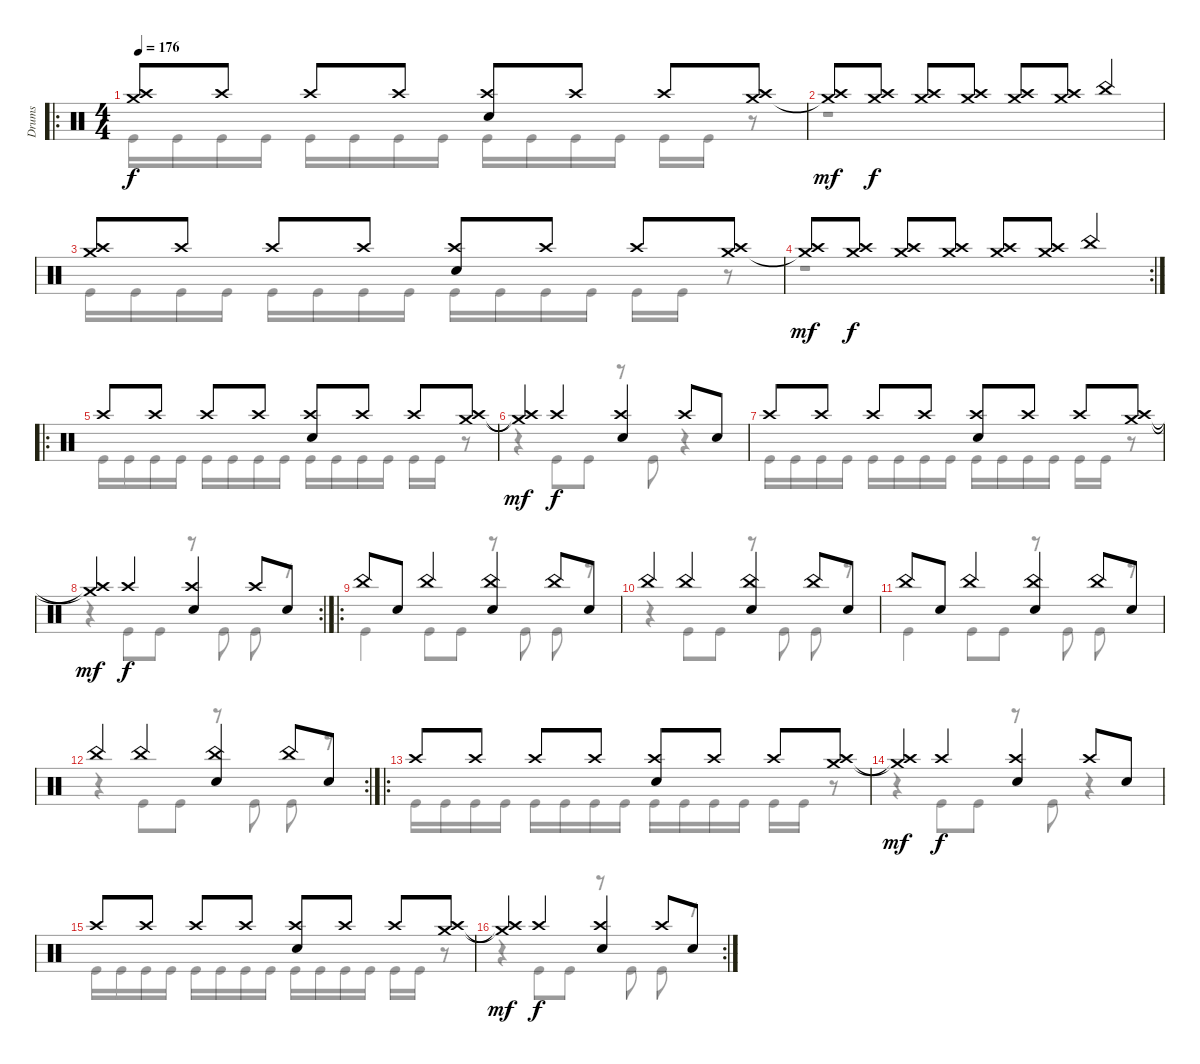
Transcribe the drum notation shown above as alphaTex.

\track ("Drums" "Drums") {instrument percussion}
\staff {score}
\articulation defaults
\voice
\ro
\ts (4 4)
\tempo 176
\clef neutral
\ks c
("Crash medium (hit)" "Crash high (hit)").8{dy f} "Crash high (hit)".8 "Crash high (hit)".8 "Crash high (hit)".8 ("Snare (hit) 2" "Crash high (hit)").8 "Crash high (hit)".8 "Crash high (hit)".8 ("Crash high (hit)" "Crash medium (hit)").8 |
("Crash high (hit)" "Crash medium (hit)"{t}).8{dy mf} ("Crash high (hit)" "Crash medium (hit)").8{dy f} ("Crash high (hit)" "Crash medium (hit)").8 ("Crash high (hit)" "Crash medium (hit)").8 ("Crash high (hit)" "Crash medium (hit)").8 ("Crash high (hit)" "Crash medium (hit)").8 "China (hit)".4 |
("Crash medium (hit)" "Crash high (hit)").8 "Crash high (hit)".8 "Crash high (hit)".8 "Crash high (hit)".8 ("Snare (hit) 2" "Crash high (hit)").8 "Crash high (hit)".8 "Crash high (hit)".8 ("Crash high (hit)" "Crash medium (hit)").8 |
\rc 2
("Crash high (hit)" "Crash medium (hit)"{t}).8{dy mf} ("Crash high (hit)" "Crash medium (hit)").8{dy f} ("Crash high (hit)" "Crash medium (hit)").8 ("Crash high (hit)" "Crash medium (hit)").8 ("Crash high (hit)" "Crash medium (hit)").8 ("Crash high (hit)" "Crash medium (hit)").8 "China (hit)".4 |
\ro "Crash high (hit)".8 "Crash high (hit)".8 "Crash high (hit)".8 "Crash high (hit)".8
("Snare (hit) 2" "Crash high (hit)").8 "Crash high (hit)".8 "Crash high (hit)".8 ("Crash high (hit)" "Crash medium (hit)").8 |
("Crash medium (hit)"{t} "Crash high (hit)"{t}).4{dy mf} "Crash high (hit)".4{dy f} ("Snare (hit) 2" "Crash high (hit)").4 "Crash high (hit)".8 "Snare (hit) 2".8 |
"Crash high (hit)".8 "Crash high (hit)".8 "Crash high (hit)".8 "Crash high (hit)".8 ("Snare (hit) 2" "Crash high (hit)").8 "Crash high (hit)".8 "Crash high (hit)".8 ("Crash high (hit)" "Crash medium (hit)").8 |
\rc 2
("Crash medium (hit)"{t} "Crash high (hit)"{t}).4{dy mf} "Crash high (hit)".4{dy f} ("Snare (hit) 2" "Crash high (hit)").4 "Crash high (hit)".8 "Snare (hit) 2".8 |
\ro "China (hit)".8 "Snare (hit) 2".8 "China (hit)".4
("Snare (hit) 2" "China (hit)").4 "China (hit)".8 "Snare (hit) 2".8 |
"China (hit)".4 "China (hit)".4 ("China (hit)" "Snare (hit) 2").4 "China (hit)".8 "Snare (hit) 2".8 |
"China (hit)".8 "Snare (hit) 2".8 "China (hit)".4 ("Snare (hit) 2" "China (hit)").4 "China (hit)".8 "Snare (hit) 2".8 |
\rc 2 "China (hit)".4 "China (hit)".4
("China (hit)" "Snare (hit) 2").4 "China (hit)".8 "Snare (hit) 2".8 |
\ro "Crash high (hit)".8 "Crash high (hit)".8 "Crash high (hit)".8 "Crash high (hit)".8
("Snare (hit) 2" "Crash high (hit)").8 "Crash high (hit)".8 "Crash high (hit)".8 ("Crash high (hit)" "Crash medium (hit)").8 |
("Crash medium (hit)"{t} "Crash high (hit)"{t}).4{dy mf} "Crash high (hit)".4{dy f} ("Snare (hit) 2" "Crash high (hit)").4 "Crash high (hit)".8 "Snare (hit) 2".8 |
"Crash high (hit)".8 "Crash high (hit)".8 "Crash high (hit)".8 "Crash high (hit)".8 ("Snare (hit) 2" "Crash high (hit)").8 "Crash high (hit)".8 "Crash high (hit)".8 ("Crash high (hit)" "Crash medium (hit)").8 |
\rc 2
("Crash medium (hit)"{t} "Crash high (hit)"{t}).4{dy mf} "Crash high (hit)".4{dy f} ("Snare (hit) 2" "Crash high (hit)").4 "Crash high (hit)".8 "Snare (hit) 2".8
\voice
\clef neutral
\ottava regular
\simile none
\ks c "Kick (hit)".16{dy f} "Kick (hit)".16 "Kick (hit)".16 "Kick (hit)".16 "Kick (hit)".16 "Kick (hit)".16 "Kick (hit)".16 "Kick (hit)".16 "Kick (hit)".16 "Kick (hit)".16 "Kick (hit)".16 "Kick (hit)".16 "Kick (hit)".16 "Kick (hit)".16
r.8 |
r.1 |
"Kick (hit)".16 "Kick (hit)".16 "Kick (hit)".16 "Kick (hit)".16 "Kick (hit)".16 "Kick (hit)".16 "Kick (hit)".16 "Kick (hit)".16 "Kick (hit)".16 "Kick (hit)".16 "Kick (hit)".16 "Kick (hit)".16 "Kick (hit)".16 "Kick (hit)".16 r.8 |
r.1 |
"Kick (hit)".16 "Kick (hit)".16 "Kick (hit)".16 "Kick (hit)".16 "Kick (hit)".16 "Kick (hit)".16 "Kick (hit)".16 "Kick (hit)".16 "Kick (hit)".16 "Kick (hit)".16 "Kick (hit)".16 "Kick (hit)".16 "Kick (hit)".16 "Kick (hit)".16 r.8 |
r.4 "Kick (hit)".8 "Kick (hit)".8 r.8 "Kick (hit)".8 r.4 |
"Kick (hit)".16 "Kick (hit)".16 "Kick (hit)".16 "Kick (hit)".16 "Kick (hit)".16 "Kick (hit)".16 "Kick (hit)".16 "Kick (hit)".16 "Kick (hit)".16 "Kick (hit)".16 "Kick (hit)".16 "Kick (hit)".16 "Kick (hit)".16 "Kick (hit)".16 r.8 |
r.4 "Kick (hit)".8 "Kick (hit)".8 r.8 "Kick (hit)".8 "Kick (hit)".8 r.8 |
"Kick (hit)".4 "Kick (hit)".8 "Kick (hit)".8 r.8 "Kick (hit)".8 "Kick (hit)".8 r.8 |
r.4 "Kick (hit)".8 "Kick (hit)".8 r.8 "Kick (hit)".8 "Kick (hit)".8 r.8 |
"Kick (hit)".4 "Kick (hit)".8 "Kick (hit)".8 r.8 "Kick (hit)".8 "Kick (hit)".8 r.8 |
r.4 "Kick (hit)".8 "Kick (hit)".8 r.8 "Kick (hit)".8 "Kick (hit)".8 r.8 |
"Kick (hit)".16 "Kick (hit)".16 "Kick (hit)".16 "Kick (hit)".16 "Kick (hit)".16 "Kick (hit)".16 "Kick (hit)".16 "Kick (hit)".16 "Kick (hit)".16 "Kick (hit)".16 "Kick (hit)".16 "Kick (hit)".16 "Kick (hit)".16 "Kick (hit)".16 r.8 |
r.4 "Kick (hit)".8 "Kick (hit)".8 r.8 "Kick (hit)".8 r.4 |
"Kick (hit)".16 "Kick (hit)".16 "Kick (hit)".16 "Kick (hit)".16 "Kick (hit)".16 "Kick (hit)".16 "Kick (hit)".16 "Kick (hit)".16 "Kick (hit)".16 "Kick (hit)".16 "Kick (hit)".16 "Kick (hit)".16 "Kick (hit)".16 "Kick (hit)".16 r.8 |
r.4 "Kick (hit)".8 "Kick (hit)".8 r.8 "Kick (hit)".8 "Kick (hit)".8 r.8
